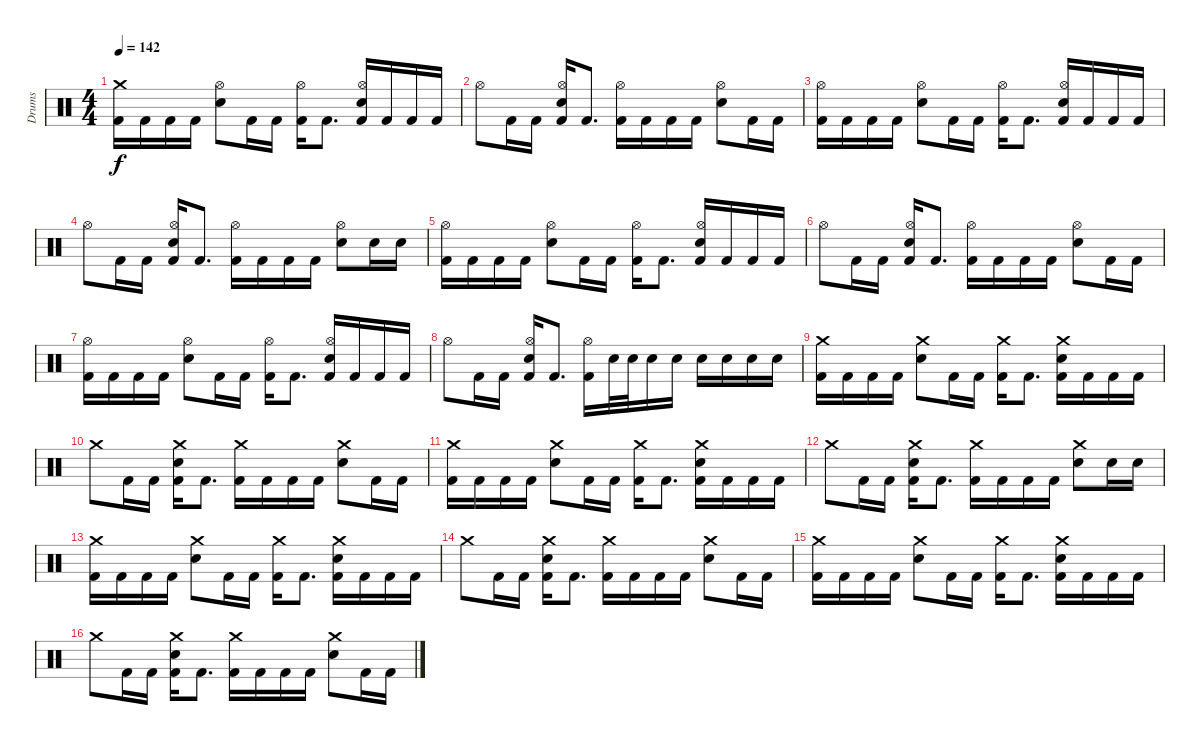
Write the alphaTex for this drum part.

\track ("Drums" "Drums") {instrument percussion}
\staff {score}
\articulation defaults
\ts (4 4)
\tempo 142
\clef neutral
\ks c
("Crash medium (hit)" "Kick (hit) 2").16{dy f} "Kick (hit) 2".16 "Kick (hit) 2".16 "Kick (hit) 2".16 ("Hi-Hat (open)" "Electric Snare (hit)").8 "Kick (hit) 2".16 "Kick (hit) 2".16 ("Hi-Hat (open)" "Kick (hit) 2").16 "Kick (hit) 2".8{d} ("Hi-Hat (open)" "Electric Snare (hit)" "Kick (hit) 2").16 "Kick (hit) 2".16 "Kick (hit) 2".16 "Kick (hit) 2".16 |
"Hi-Hat (open)".8 "Kick (hit) 2".16 "Kick (hit) 2".16 ("Hi-Hat (open)" "Electric Snare (hit)" "Kick (hit) 2").16 "Kick (hit) 2".8{d} ("Hi-Hat (open)" "Kick (hit) 2").16 "Kick (hit) 2".16 "Kick (hit) 2".16 "Kick (hit) 2".16 ("Hi-Hat (open)" "Electric Snare (hit)").8 "Kick (hit) 2".16 "Kick (hit) 2".16 |
("Hi-Hat (open)" "Kick (hit) 2").16 "Kick (hit) 2".16 "Kick (hit) 2".16 "Kick (hit) 2".16 ("Hi-Hat (open)" "Electric Snare (hit)").8 "Kick (hit) 2".16 "Kick (hit) 2".16 ("Hi-Hat (open)" "Kick (hit) 2").16 "Kick (hit) 2".8{d} ("Hi-Hat (open)" "Electric Snare (hit)" "Kick (hit) 2").16 "Kick (hit) 2".16 "Kick (hit) 2".16 "Kick (hit) 2".16 |
"Hi-Hat (open)".8 "Kick (hit) 2".16 "Kick (hit) 2".16 ("Hi-Hat (open)" "Electric Snare (hit)" "Kick (hit) 2").16 "Kick (hit) 2".8{d} ("Hi-Hat (open)" "Kick (hit) 2").16 "Kick (hit) 2".16 "Kick (hit) 2".16 "Kick (hit) 2".16 ("Hi-Hat (open)" "Electric Snare (hit)").8 "Electric Snare (hit)".16 "Electric Snare (hit)".16 |
("Hi-Hat (open)" "Kick (hit) 2").16 "Kick (hit) 2".16 "Kick (hit) 2".16 "Kick (hit) 2".16 ("Hi-Hat (open)" "Electric Snare (hit)").8 "Kick (hit) 2".16 "Kick (hit) 2".16 ("Hi-Hat (open)" "Kick (hit) 2").16 "Kick (hit) 2".8{d} ("Hi-Hat (open)" "Electric Snare (hit)" "Kick (hit) 2").16 "Kick (hit) 2".16 "Kick (hit) 2".16 "Kick (hit) 2".16 |
"Hi-Hat (open)".8 "Kick (hit) 2".16 "Kick (hit) 2".16 ("Hi-Hat (open)" "Electric Snare (hit)" "Kick (hit) 2").16 "Kick (hit) 2".8{d} ("Hi-Hat (open)" "Kick (hit) 2").16 "Kick (hit) 2".16 "Kick (hit) 2".16 "Kick (hit) 2".16 ("Hi-Hat (open)" "Electric Snare (hit)").8 "Kick (hit) 2".16 "Kick (hit) 2".16 |
("Hi-Hat (open)" "Kick (hit) 2").16 "Kick (hit) 2".16 "Kick (hit) 2".16 "Kick (hit) 2".16 ("Hi-Hat (open)" "Electric Snare (hit)").8 "Kick (hit) 2".16 "Kick (hit) 2".16 ("Hi-Hat (open)" "Kick (hit) 2").16 "Kick (hit) 2".8{d} ("Hi-Hat (open)" "Electric Snare (hit)" "Kick (hit) 2").16 "Kick (hit) 2".16 "Kick (hit) 2".16 "Kick (hit) 2".16 |
"Hi-Hat (open)".8 "Kick (hit) 2".16 "Kick (hit) 2".16 ("Hi-Hat (open)" "Electric Snare (hit)" "Kick (hit) 2").16 "Kick (hit) 2".8{d} ("Hi-Hat (open)" "Kick (hit) 2").16 "Electric Snare (hit)".32 "Electric Snare (hit)".32 "Electric Snare (hit)".16 "Electric Snare (hit)".16 "Electric Snare (hit)".16 "Electric Snare (hit)".16 "Electric Snare (hit)".16 "Electric Snare (hit)".16 |
("Crash medium (hit)" "Kick (hit) 2").16 "Kick (hit) 2".16 "Kick (hit) 2".16 "Kick (hit) 2".16 ("Crash medium (hit)" "Electric Snare (hit)").8 "Kick (hit) 2".16 "Kick (hit) 2".16 ("Crash medium (hit)" "Kick (hit) 2").16 "Kick (hit) 2".8{d} ("Crash medium (hit)" "Electric Snare (hit)" "Kick (hit) 2").16 "Kick (hit) 2".16 "Kick (hit) 2".16 "Kick (hit) 2".16 |
"Crash medium (hit)".8 "Kick (hit) 2".16 "Kick (hit) 2".16 ("Crash medium (hit)" "Electric Snare (hit)" "Kick (hit) 2").16 "Kick (hit) 2".8{d} ("Crash medium (hit)" "Kick (hit) 2").16 "Kick (hit) 2".16 "Kick (hit) 2".16 "Kick (hit) 2".16 ("Crash medium (hit)" "Electric Snare (hit)").8 "Kick (hit) 2".16 "Kick (hit) 2".16 |
("Crash medium (hit)" "Kick (hit) 2").16 "Kick (hit) 2".16 "Kick (hit) 2".16 "Kick (hit) 2".16 ("Crash medium (hit)" "Electric Snare (hit)").8 "Kick (hit) 2".16 "Kick (hit) 2".16 ("Crash medium (hit)" "Kick (hit) 2").16 "Kick (hit) 2".8{d} ("Crash medium (hit)" "Electric Snare (hit)" "Kick (hit) 2").16 "Kick (hit) 2".16 "Kick (hit) 2".16 "Kick (hit) 2".16 |
"Crash medium (hit)".8 "Kick (hit) 2".16 "Kick (hit) 2".16 ("Crash medium (hit)" "Electric Snare (hit)" "Kick (hit) 2").16 "Kick (hit) 2".8{d} ("Crash medium (hit)" "Kick (hit) 2").16 "Kick (hit) 2".16 "Kick (hit) 2".16 "Kick (hit) 2".16 ("Crash medium (hit)" "Electric Snare (hit)").8 "Electric Snare (hit)".16 "Electric Snare (hit)".16 |
("Crash medium (hit)" "Kick (hit) 2").16 "Kick (hit) 2".16 "Kick (hit) 2".16 "Kick (hit) 2".16 ("Crash medium (hit)" "Electric Snare (hit)").8 "Kick (hit) 2".16 "Kick (hit) 2".16 ("Crash medium (hit)" "Kick (hit) 2").16 "Kick (hit) 2".8{d} ("Crash medium (hit)" "Electric Snare (hit)" "Kick (hit) 2").16 "Kick (hit) 2".16 "Kick (hit) 2".16 "Kick (hit) 2".16 |
"Crash medium (hit)".8 "Kick (hit) 2".16 "Kick (hit) 2".16 ("Crash medium (hit)" "Electric Snare (hit)" "Kick (hit) 2").16 "Kick (hit) 2".8{d} ("Crash medium (hit)" "Kick (hit) 2").16 "Kick (hit) 2".16 "Kick (hit) 2".16 "Kick (hit) 2".16 ("Crash medium (hit)" "Electric Snare (hit)").8 "Kick (hit) 2".16 "Kick (hit) 2".16 |
("Crash medium (hit)" "Kick (hit) 2").16 "Kick (hit) 2".16 "Kick (hit) 2".16 "Kick (hit) 2".16 ("Crash medium (hit)" "Electric Snare (hit)").8 "Kick (hit) 2".16 "Kick (hit) 2".16 ("Crash medium (hit)" "Kick (hit) 2").16 "Kick (hit) 2".8{d} ("Crash medium (hit)" "Electric Snare (hit)" "Kick (hit) 2").16 "Kick (hit) 2".16 "Kick (hit) 2".16 "Kick (hit) 2".16 |
"Crash medium (hit)".8 "Kick (hit) 2".16 "Kick (hit) 2".16 ("Crash medium (hit)" "Electric Snare (hit)" "Kick (hit) 2").16 "Kick (hit) 2".8{d} ("Crash medium (hit)" "Kick (hit) 2").16 "Kick (hit) 2".16 "Kick (hit) 2".16 "Kick (hit) 2".16 ("Crash medium (hit)" "Electric Snare (hit)").8 "Kick (hit) 2".16 "Kick (hit) 2".16
